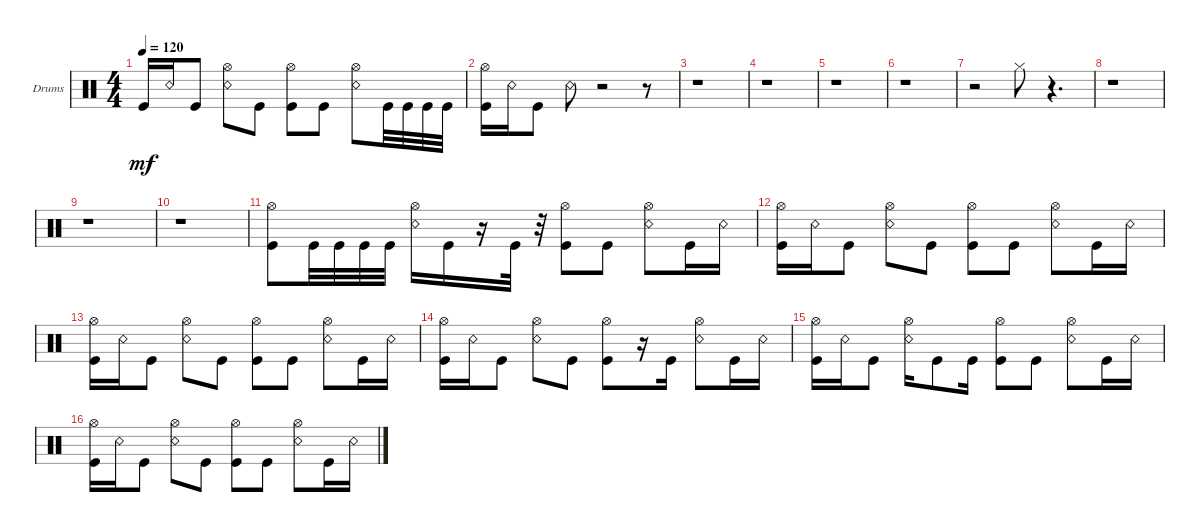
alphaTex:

\defaultSystemsLayout 4
\bracketExtendMode groupsimilarinstruments
\firstSystemTrackNameOrientation horizontal
\otherSystemsTrackNameOrientation horizontal
\track ("Drumkit" "Drums") {instrument percussion}
\staff {score}
\articulation defaults
\ts (4 4)
\tempo 120
\clef neutral
\scale
0.333333
\ks c "Kick (hit)".16{dy mf} "Snare (rim shot)".16 "Kick (hit)".8
("Hi-Hat (open)" "Snare (rim shot)").8 "Kick (hit)".8 ("Kick (hit)" "Hi-Hat (open)").8 "Kick (hit)".8 ("Hi-Hat (open)" "Snare (rim shot)").8 "Kick (hit)".32 "Kick (hit)".32 "Kick (hit)".32 "Kick (hit)".32 |
\scale
0.333333 ("Kick (hit)" "Hi-Hat (open)").16 "Snare (rim shot)".16 "Kick (hit)".8 "Snare (rim shot)".8 r.2 r.8 |
\scale
0.333333 r.1 |
\scale
0.333333 r.1 |
\scale
0.333333 r.1 |
\scale
0.333333 r.1 |
\scale
0.333333 r.2 "Hi-Hat (closed)".8 r.4{d} |
\scale
0.333333 r.1 |
\scale
0.333333 r.1 |
\scale
0.333333 r.1 |
\scale
0.333333 ("Kick (hit)" "Hi-Hat (open)").8 "Kick (hit)".32 "Kick (hit)".32 "Kick (hit)".32 "Kick (hit)".32 ("Hi-Hat (open)" "Snare (rim shot)").16 "Kick (hit)".16 r.16 "Kick (hit)".32 r.32 ("Hi-Hat (open)" "Kick (hit)").8 "Kick (hit)".8 ("Hi-Hat (open)" "Snare (rim shot)").8 "Kick (hit)".16 "Snare (rim shot)".16 |
\scale
0.333333 ("Kick (hit)" "Hi-Hat (open)").16 "Snare (rim shot)".16 "Kick (hit)".8 ("Hi-Hat (open)" "Snare (rim shot)").8 "Kick (hit)".8 ("Kick (hit)" "Hi-Hat (open)").8 "Kick (hit)".8 ("Hi-Hat (open)" "Snare (rim shot)").8 "Kick (hit)".16 "Snare (rim shot)".16 |
\scale
0.333333 ("Kick (hit)" "Hi-Hat (open)").16 "Snare (rim shot)".16 "Kick (hit)".8 ("Hi-Hat (open)" "Snare (rim shot)").8 "Kick (hit)".8 ("Kick (hit)" "Hi-Hat (open)").8 "Kick (hit)".8 ("Hi-Hat (open)" "Snare (rim shot)").8 "Kick (hit)".16 "Snare (rim shot)".16 |
\scale
0.333333 ("Kick (hit)" "Hi-Hat (open)").16 "Snare (rim shot)".16 "Kick (hit)".8 ("Hi-Hat (open)" "Snare (rim shot)").8 "Kick (hit)".8 ("Kick (hit)" "Hi-Hat (open)").8 r.16 "Kick (hit)".16 ("Hi-Hat (open)" "Snare (rim shot)").8 "Kick (hit)".16 "Snare (rim shot)".16 |
\scale
0.333333 ("Kick (hit)" "Hi-Hat (open)").16 "Snare (rim shot)".16 "Kick (hit)".8 ("Hi-Hat (open)" "Snare (rim shot)").16 "Kick (hit)".8 "Kick (hit)".16 ("Kick (hit)" "Hi-Hat (open)").8 "Kick (hit)".8 ("Hi-Hat (open)" "Snare (rim shot)").8 "Kick (hit)".16 "Snare (rim shot)".16 |
\scale
0.333333 ("Kick (hit)" "Hi-Hat (open)").16 "Snare (rim shot)".16 "Kick (hit)".8 ("Hi-Hat (open)" "Snare (rim shot)").8 "Kick (hit)".8 ("Kick (hit)" "Hi-Hat (open)").8 "Kick (hit)".8 ("Hi-Hat (open)" "Snare (rim shot)").8 "Kick (hit)".16 "Snare (rim shot)".16
